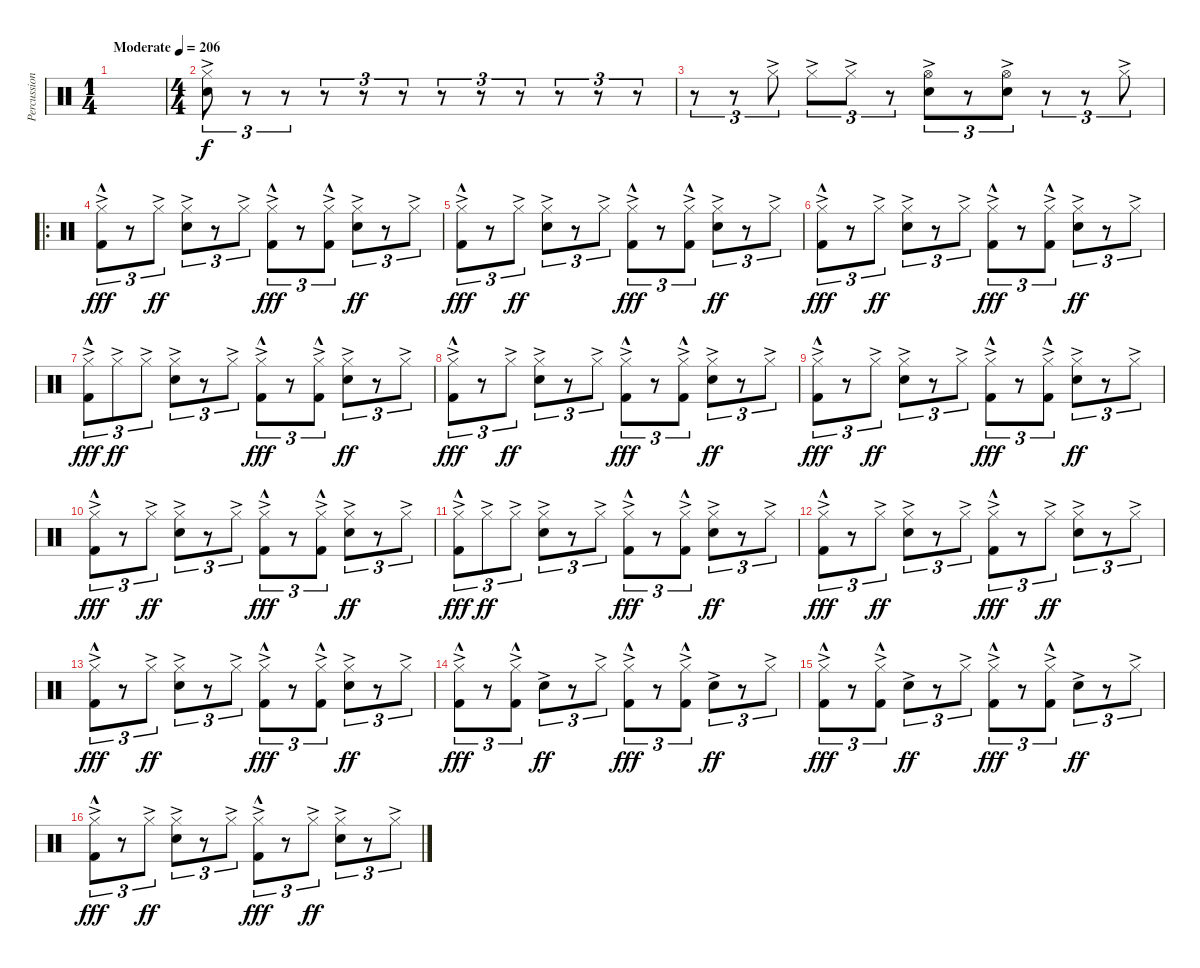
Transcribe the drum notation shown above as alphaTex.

\track ("Percussion" "Percussion") {instrument percussion}
\staff {score}
\articulation defaults
\ts (1 4)
\tempo (206 "Moderate")
\clef neutral
\ks c
|
\ts (4 4)
("Hi-Hat (closed)"{ac} "Snare (hit) 2"{ac}).8{tu (3 2)} r.8{tu (3 2)} r.8{tu (3 2)} r.8{tu (3 2)} r.8{tu (3 2)} r.8{tu (3 2)} r.8{tu (3 2)} r.8{tu (3 2)} r.8{tu (3 2)} r.8{tu (3 2)} r.8{tu (3 2)} r.8{tu (3 2)} |
r.8{tu (3 2)} r.8{tu (3 2)} "Hi-Hat (closed)"{ac}.8{tu (3 2)} "Hi-Hat (closed)"{ac}.8{tu (3 2)} "Hi-Hat (closed)"{ac}.8{tu (3 2)} r.8{tu (3 2)} ("Hi-Hat (open)"{ac} "Snare (hit) 2"{ac}).8{tu (3 2)} r.8{tu (3 2)} ("Hi-Hat (open)"{ac} "Snare (hit) 2"{ac}).8{tu (3 2)} r.8{tu (3 2)} r.8{tu (3 2)} "Hi-Hat (closed)"{ac}.8{tu (3 2)} |
\ro
("Hi-Hat (closed)"{ac} "Kick (hit) 2"{hac}).8{tu (3 2) dy fff} r.8{tu (3 2)} "Hi-Hat (closed)"{ac}.8{tu (3 2) dy ff} ("Hi-Hat (closed)"{ac} "Snare (hit) 2"{ac}).8{tu (3 2)} r.8{tu (3 2)} "Hi-Hat (closed)"{ac}.8{tu (3 2)} ("Hi-Hat (closed)"{ac} "Kick (hit) 2"{hac}).8{tu (3 2) dy fff} r.8{tu (3 2)} ("Hi-Hat (closed)"{ac} "Kick (hit) 2"{hac}).8{tu (3 2)} ("Hi-Hat (closed)"{ac} "Snare (hit) 2"{ac}).8{tu (3 2) dy ff} r.8{tu (3 2)} "Hi-Hat (closed)"{ac}.8{tu (3 2)} |
("Hi-Hat (closed)"{ac} "Kick (hit) 2"{hac}).8{tu (3 2) dy fff} r.8{tu (3 2)} "Hi-Hat (closed)"{ac}.8{tu (3 2) dy ff} ("Hi-Hat (closed)"{ac} "Snare (hit) 2"{ac}).8{tu (3 2)} r.8{tu (3 2)} "Hi-Hat (closed)"{ac}.8{tu (3 2)} ("Hi-Hat (closed)"{ac} "Kick (hit) 2"{hac}).8{tu (3 2) dy fff} r.8{tu (3 2)} ("Hi-Hat (closed)"{ac} "Kick (hit) 2"{hac}).8{tu (3 2)} ("Hi-Hat (closed)"{ac} "Snare (hit) 2"{ac}).8{tu (3 2) dy ff} r.8{tu (3 2)} "Hi-Hat (closed)"{ac}.8{tu (3 2)} |
("Hi-Hat (closed)"{ac} "Kick (hit) 2"{hac}).8{tu (3 2) dy fff} r.8{tu (3 2)} "Hi-Hat (closed)"{ac}.8{tu (3 2) dy ff} ("Hi-Hat (closed)"{ac} "Snare (hit) 2"{ac}).8{tu (3 2)} r.8{tu (3 2)} "Hi-Hat (closed)"{ac}.8{tu (3 2)} ("Hi-Hat (closed)"{ac} "Kick (hit) 2"{hac}).8{tu (3 2) dy fff} r.8{tu (3 2)} ("Hi-Hat (closed)"{ac} "Kick (hit) 2"{hac}).8{tu (3 2)} ("Hi-Hat (closed)"{ac} "Snare (hit) 2"{ac}).8{tu (3 2) dy ff} r.8{tu (3 2)} "Hi-Hat (closed)"{ac}.8{tu (3 2)} |
("Hi-Hat (closed)"{ac} "Kick (hit) 2"{hac}).8{tu (3 2) dy fff} "Hi-Hat (closed)"{ac}.8{tu (3 2) dy ff} "Hi-Hat (closed)"{ac}.8{tu (3 2)} ("Hi-Hat (closed)"{ac} "Snare (hit) 2"{ac}).8{tu (3 2)} r.8{tu (3 2)} "Hi-Hat (closed)"{ac}.8{tu (3 2)} ("Hi-Hat (closed)"{ac} "Kick (hit) 2"{hac}).8{tu (3 2) dy fff} r.8{tu (3 2)} ("Hi-Hat (closed)"{ac} "Kick (hit) 2"{hac}).8{tu (3 2)} ("Hi-Hat (closed)"{ac} "Snare (hit) 2"{ac}).8{tu (3 2) dy ff} r.8{tu (3 2)} "Hi-Hat (closed)"{ac}.8{tu (3 2)} |
("Hi-Hat (closed)"{ac} "Kick (hit) 2"{hac}).8{tu (3 2) dy fff} r.8{tu (3 2)} "Hi-Hat (closed)"{ac}.8{tu (3 2) dy ff} ("Hi-Hat (closed)"{ac} "Snare (hit) 2"{ac}).8{tu (3 2)} r.8{tu (3 2)} "Hi-Hat (closed)"{ac}.8{tu (3 2)} ("Hi-Hat (closed)"{ac} "Kick (hit) 2"{hac}).8{tu (3 2) dy fff} r.8{tu (3 2)} ("Hi-Hat (closed)"{ac} "Kick (hit) 2"{hac}).8{tu (3 2)} ("Hi-Hat (closed)"{ac} "Snare (hit) 2"{ac}).8{tu (3 2) dy ff} r.8{tu (3 2)} "Hi-Hat (closed)"{ac}.8{tu (3 2)} |
("Hi-Hat (closed)"{ac} "Kick (hit) 2"{hac}).8{tu (3 2) dy fff} r.8{tu (3 2)} "Hi-Hat (closed)"{ac}.8{tu (3 2) dy ff} ("Hi-Hat (closed)"{ac} "Snare (hit) 2"{ac}).8{tu (3 2)} r.8{tu (3 2)} "Hi-Hat (closed)"{ac}.8{tu (3 2)} ("Hi-Hat (closed)"{ac} "Kick (hit) 2"{hac}).8{tu (3 2) dy fff} r.8{tu (3 2)} ("Hi-Hat (closed)"{ac} "Kick (hit) 2"{hac}).8{tu (3 2)} ("Hi-Hat (closed)"{ac} "Snare (hit) 2"{ac}).8{tu (3 2) dy ff} r.8{tu (3 2)} "Hi-Hat (closed)"{ac}.8{tu (3 2)} |
("Hi-Hat (closed)"{ac} "Kick (hit) 2"{hac}).8{tu (3 2) dy fff} r.8{tu (3 2)} "Hi-Hat (closed)"{ac}.8{tu (3 2) dy ff} ("Hi-Hat (closed)"{ac} "Snare (hit) 2"{ac}).8{tu (3 2)} r.8{tu (3 2)} "Hi-Hat (closed)"{ac}.8{tu (3 2)} ("Hi-Hat (closed)"{ac} "Kick (hit) 2"{hac}).8{tu (3 2) dy fff} r.8{tu (3 2)} ("Hi-Hat (closed)"{ac} "Kick (hit) 2"{hac}).8{tu (3 2)} ("Hi-Hat (closed)"{ac} "Snare (hit) 2"{ac}).8{tu (3 2) dy ff} r.8{tu (3 2)} "Hi-Hat (closed)"{ac}.8{tu (3 2)} |
("Hi-Hat (closed)"{ac} "Kick (hit) 2"{hac}).8{tu (3 2) dy fff} "Hi-Hat (closed)"{ac}.8{tu (3 2) dy ff} "Hi-Hat (closed)"{ac}.8{tu (3 2)} ("Hi-Hat (closed)"{ac} "Snare (hit) 2"{ac}).8{tu (3 2)} r.8{tu (3 2)} "Hi-Hat (closed)"{ac}.8{tu (3 2)} ("Hi-Hat (closed)"{ac} "Kick (hit) 2"{hac}).8{tu (3 2) dy fff} r.8{tu (3 2)} ("Hi-Hat (closed)"{ac} "Kick (hit) 2"{hac}).8{tu (3 2)} ("Hi-Hat (closed)"{ac} "Snare (hit) 2"{ac}).8{tu (3 2) dy ff} r.8{tu (3 2)} "Hi-Hat (closed)"{ac}.8{tu (3 2)} |
("Hi-Hat (closed)"{ac} "Kick (hit) 2"{hac}).8{tu (3 2) dy fff} r.8{tu (3 2)} "Hi-Hat (closed)"{ac}.8{tu (3 2) dy ff} ("Hi-Hat (closed)"{ac} "Snare (hit) 2"{ac}).8{tu (3 2)} r.8{tu (3 2)} "Hi-Hat (closed)"{ac}.8{tu (3 2)} ("Hi-Hat (closed)"{ac} "Kick (hit) 2"{hac}).8{tu (3 2) dy fff} r.8{tu (3 2)} "Hi-Hat (closed)"{ac}.8{tu (3 2) dy ff} ("Hi-Hat (closed)"{ac} "Snare (hit) 2"{ac}).8{tu (3 2)} r.8{tu (3 2)} "Hi-Hat (closed)"{ac}.8{tu (3 2)} |
("Hi-Hat (closed)"{ac} "Kick (hit) 2"{hac}).8{tu (3 2) dy fff} r.8{tu (3 2)} "Hi-Hat (closed)"{ac}.8{tu (3 2) dy ff} ("Hi-Hat (closed)"{ac} "Snare (hit) 2"{ac}).8{tu (3 2)} r.8{tu (3 2)} "Hi-Hat (closed)"{ac}.8{tu (3 2)} ("Hi-Hat (closed)"{ac} "Kick (hit) 2"{hac}).8{tu (3 2) dy fff} r.8{tu (3 2)} ("Hi-Hat (closed)"{ac} "Kick (hit) 2"{hac}).8{tu (3 2)} ("Hi-Hat (closed)"{ac} "Snare (hit) 2"{ac}).8{tu (3 2) dy ff} r.8{tu (3 2)} "Hi-Hat (closed)"{ac}.8{tu (3 2)} |
("Hi-Hat (closed)"{ac} "Kick (hit) 2"{hac}).8{tu (3 2) dy fff} r.8{tu (3 2)} ("Hi-Hat (closed)"{ac} "Kick (hit) 2"{hac}).8{tu (3 2)} "Snare (hit) 2"{ac}.8{tu (3 2) dy ff} r.8{tu (3 2)} "Hi-Hat (closed)"{ac}.8{tu (3 2)} ("Hi-Hat (closed)"{ac} "Kick (hit) 2"{hac}).8{tu (3 2) dy fff} r.8{tu (3 2)} ("Hi-Hat (closed)"{ac} "Kick (hit) 2"{hac}).8{tu (3 2)} "Snare (hit) 2"{ac}.8{tu (3 2) dy ff} r.8{tu (3 2)} "Hi-Hat (closed)"{ac}.8{tu (3 2)} |
("Hi-Hat (closed)"{ac} "Kick (hit) 2"{hac}).8{tu (3 2) dy fff} r.8{tu (3 2)} ("Hi-Hat (closed)"{ac} "Kick (hit) 2"{hac}).8{tu (3 2)} "Snare (hit) 2"{ac}.8{tu (3 2) dy ff} r.8{tu (3 2)} "Hi-Hat (closed)"{ac}.8{tu (3 2)} ("Hi-Hat (closed)"{ac} "Kick (hit) 2"{hac}).8{tu (3 2) dy fff} r.8{tu (3 2)} ("Hi-Hat (closed)"{ac} "Kick (hit) 2"{hac}).8{tu (3 2)} "Snare (hit) 2"{ac}.8{tu (3 2) dy ff} r.8{tu (3 2)} "Hi-Hat (closed)"{ac}.8{tu (3 2)} |
("Hi-Hat (closed)"{ac} "Kick (hit) 2"{hac}).8{tu (3 2) dy fff} r.8{tu (3 2)} "Hi-Hat (closed)"{ac}.8{tu (3 2) dy ff} ("Hi-Hat (closed)"{ac} "Snare (hit) 2"{ac}).8{tu (3 2)} r.8{tu (3 2)} "Hi-Hat (closed)"{ac}.8{tu (3 2)} ("Hi-Hat (closed)"{ac} "Kick (hit) 2"{hac}).8{tu (3 2) dy fff} r.8{tu (3 2)} "Hi-Hat (closed)"{ac}.8{tu (3 2) dy ff} ("Hi-Hat (closed)"{ac} "Snare (hit) 2"{ac}).8{tu (3 2)} r.8{tu (3 2)} "Hi-Hat (closed)"{ac}.8{tu (3 2)}
